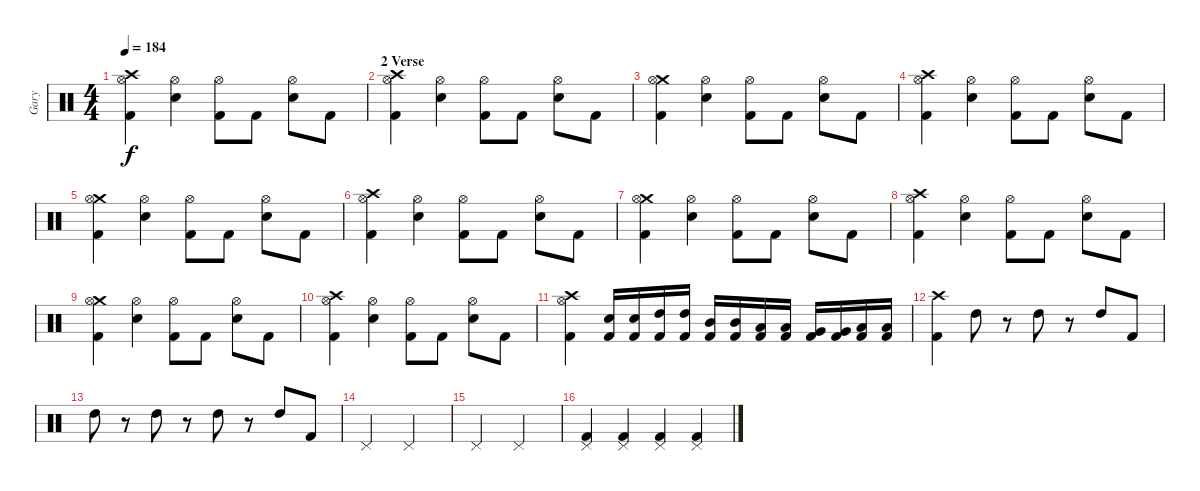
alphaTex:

\track ("Gary" "Gary") {instrument percussion}
\staff {score}
\articulation defaults
\ts (4 4)
\tempo 184
\clef neutral
\ks c
("Crash high (hit)" "Hi-Hat (open)" "Kick (hit) 2").4{dy f} ("Hi-Hat (open)" "Snare (hit) 2").4 ("Hi-Hat (open)" "Kick (hit) 2").8 "Kick (hit) 2".8 ("Hi-Hat (open)" "Snare (hit) 2").8 "Kick (hit) 2".8 |
\section ("" "2 Verse")
("Crash high (hit)" "Hi-Hat (open)" "Kick (hit) 2").4 ("Hi-Hat (open)" "Snare (hit) 2").4 ("Hi-Hat (open)" "Kick (hit) 2").8 "Kick (hit) 2".8 ("Hi-Hat (open)" "Snare (hit) 2").8 "Kick (hit) 2".8 |
("Crash medium (hit)" "Hi-Hat (open)" "Kick (hit) 2").4 ("Hi-Hat (open)" "Snare (hit) 2").4 ("Hi-Hat (open)" "Kick (hit) 2").8 "Kick (hit) 2".8 ("Hi-Hat (open)" "Snare (hit) 2").8 "Kick (hit) 2".8 |
("Crash high (hit)" "Hi-Hat (open)" "Kick (hit) 2").4 ("Hi-Hat (open)" "Snare (hit) 2").4 ("Hi-Hat (open)" "Kick (hit) 2").8 "Kick (hit) 2".8 ("Hi-Hat (open)" "Snare (hit) 2").8 "Kick (hit) 2".8 |
("Crash medium (hit)" "Hi-Hat (open)" "Kick (hit) 2").4 ("Hi-Hat (open)" "Snare (hit) 2").4 ("Hi-Hat (open)" "Kick (hit) 2").8 "Kick (hit) 2".8 ("Hi-Hat (open)" "Snare (hit) 2").8 "Kick (hit) 2".8 |
("Crash high (hit)" "Hi-Hat (open)" "Kick (hit) 2").4 ("Hi-Hat (open)" "Snare (hit) 2").4 ("Hi-Hat (open)" "Kick (hit) 2").8 "Kick (hit) 2".8 ("Hi-Hat (open)" "Snare (hit) 2").8 "Kick (hit) 2".8 |
("Crash medium (hit)" "Hi-Hat (open)" "Kick (hit) 2").4 ("Hi-Hat (open)" "Snare (hit) 2").4 ("Hi-Hat (open)" "Kick (hit) 2").8 "Kick (hit) 2".8 ("Hi-Hat (open)" "Snare (hit) 2").8 "Kick (hit) 2".8 |
("Crash high (hit)" "Hi-Hat (open)" "Kick (hit) 2").4 ("Hi-Hat (open)" "Snare (hit) 2").4 ("Hi-Hat (open)" "Kick (hit) 2").8 "Kick (hit) 2".8 ("Hi-Hat (open)" "Snare (hit) 2").8 "Kick (hit) 2".8 |
("Crash medium (hit)" "Hi-Hat (open)" "Kick (hit) 2").4 ("Hi-Hat (open)" "Snare (hit) 2").4 ("Hi-Hat (open)" "Kick (hit) 2").8 "Kick (hit) 2".8 ("Hi-Hat (open)" "Snare (hit) 2").8 "Kick (hit) 2".8 |
("Crash high (hit)" "Hi-Hat (open)" "Kick (hit) 2").4 ("Hi-Hat (open)" "Snare (hit) 2").4 ("Hi-Hat (open)" "Kick (hit) 2").8 "Kick (hit) 2".8 ("Hi-Hat (open)" "Snare (hit) 2").8 "Kick (hit) 2".8 |
("Crash high (hit)" "Hi-Hat (open)" "Kick (hit) 2").4 ("Snare (hit) 2" "Kick (hit) 2").16 ("Snare (hit) 2" "Kick (hit) 2").16 ("High Tom (hit)" "Kick (hit) 2").16 ("High Tom (hit)" "Kick (hit) 2").16 ("Mid Tom (hit)" "Kick (hit) 2").16 ("Mid Tom (hit)" "Kick (hit) 2").16 ("Low Tom (hit)" "Kick (hit) 2").16 ("Low Tom (hit)" "Kick (hit) 2").16 ("Very Low Tom (hit)" "Kick (hit) 2").16 ("Very Low Tom (hit)" "Kick (hit) 2").16 ("Low Floor Tom (hit)" "Kick (hit) 2").16 ("Low Floor Tom (hit)" "Kick (hit) 2").16 |
("Crash high (hit)" "Kick (hit) 2").4 "High Tom (hit)".8 r.8 "High Tom (hit)".8 r.8 "High Tom (hit)".8 "Kick (hit) 2".8 |
"High Tom (hit)".8 r.8 "High Tom (hit)".8 r.8 "High Tom (hit)".8 r.8 "High Tom (hit)".8 "Kick (hit) 2".8 |
"Pedal Hi-Hat (hit)".2 "Pedal Hi-Hat (hit)".2 |
"Pedal Hi-Hat (hit)".2 "Pedal Hi-Hat (hit)".2 |
("Pedal Hi-Hat (hit)" "Kick (hit) 2").4 ("Pedal Hi-Hat (hit)" "Kick (hit) 2").4 ("Pedal Hi-Hat (hit)" "Kick (hit) 2").4 ("Pedal Hi-Hat (hit)" "Kick (hit) 2").4
